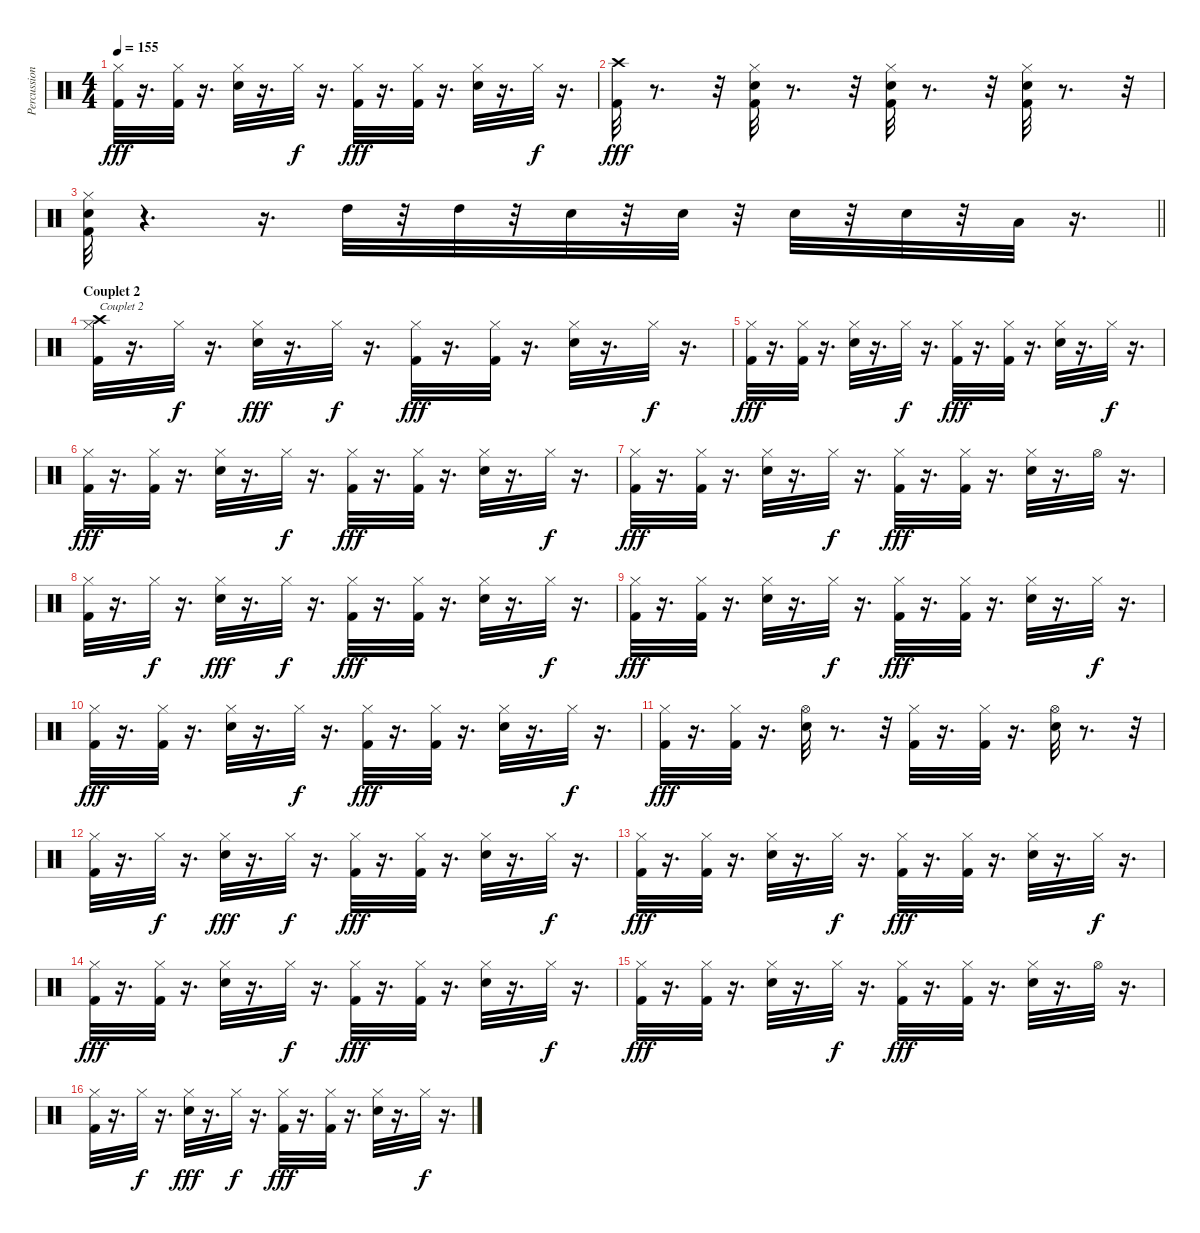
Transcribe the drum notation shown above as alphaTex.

\track ("Percussions" "Percussion") {instrument percussion}
\staff {score}
\articulation defaults
\ts (4 4)
\tempo 155
\clef neutral
\ks c
("Hi-Hat (closed)" "Kick (hit) 2").32{dy fff} r.16{d} ("Kick (hit) 2" "Hi-Hat (closed)").32 r.16{d} ("Hi-Hat (closed)" "Snare (hit) 2").32 r.16{d} "Hi-Hat (closed)".32{dy f} r.16{d} ("Hi-Hat (closed)" "Kick (hit) 2").32{dy fff} r.16{d} ("Hi-Hat (closed)" "Kick (hit) 2").32 r.16{d} ("Hi-Hat (closed)" "Snare (hit) 2").32 r.16{d} "Hi-Hat (closed)".32{dy f} r.16{d} |
("Kick (hit) 2" "Crash high (hit)").32{dy fff} r.8{d} r.32 ("Kick (hit) 2" "Hi-Hat (closed)" "Snare (hit) 2").32 r.8{d} r.32 ("Kick (hit) 2" "Hi-Hat (closed)" "Snare (hit) 2").32 r.8{d} r.32 ("Kick (hit) 2" "Hi-Hat (closed)" "Snare (hit) 2").32 r.8{d} r.32 |
\barLineRight lightlight
("Kick (hit) 2" "Hi-Hat (closed)" "Snare (hit) 2").32 r.4{d} r.16{d} "High Tom (hit)".32 r.32 "High Tom (hit)".32 r.32 "Snare (hit) 2".32 r.32 "Snare (hit) 2".32 r.32 "Snare (hit) 2".32 r.32 "Snare (hit) 2".32 r.32 "Low Tom (hit)".32 r.16{d} |
\section ("" "Couplet 2")
("Crash high (hit)" "Hi-Hat (closed)" "Kick (hit) 2").32{txt "Couplet 2"} r.16{d} "Hi-Hat (closed)".32{dy f} r.16{d} ("Hi-Hat (closed)" "Snare (hit) 2").32{dy fff} r.16{d} "Hi-Hat (closed)".32{dy f} r.16{d} ("Hi-Hat (closed)" "Kick (hit) 2").32{dy fff} r.16{d} ("Hi-Hat (closed)" "Kick (hit) 2").32 r.16{d} ("Hi-Hat (closed)" "Snare (hit) 2").32 r.16{d} "Hi-Hat (closed)".32{dy f} r.16{d} |
("Hi-Hat (closed)" "Kick (hit) 2").32{dy fff} r.16{d} ("Kick (hit) 2" "Hi-Hat (closed)").32 r.16{d} ("Hi-Hat (closed)" "Snare (hit) 2").32 r.16{d} "Hi-Hat (closed)".32{dy f} r.16{d} ("Hi-Hat (closed)" "Kick (hit) 2").32{dy fff} r.16{d} ("Hi-Hat (closed)" "Kick (hit) 2").32 r.16{d} ("Hi-Hat (closed)" "Snare (hit) 2").32 r.16{d} "Hi-Hat (closed)".32{dy f} r.16{d} |
("Hi-Hat (closed)" "Kick (hit) 2").32{dy fff} r.16{d} ("Kick (hit) 2" "Hi-Hat (closed)").32 r.16{d} ("Hi-Hat (closed)" "Snare (hit) 2").32 r.16{d} "Hi-Hat (closed)".32{dy f} r.16{d} ("Hi-Hat (closed)" "Kick (hit) 2").32{dy fff} r.16{d} ("Hi-Hat (closed)" "Kick (hit) 2").32 r.16{d} ("Hi-Hat (closed)" "Snare (hit) 2").32 r.16{d} "Hi-Hat (closed)".32{dy f} r.16{d} |
("Hi-Hat (closed)" "Kick (hit) 2").32{dy fff} r.16{d} ("Kick (hit) 2" "Hi-Hat (closed)").32 r.16{d} ("Hi-Hat (closed)" "Snare (hit) 2").32 r.16{d} "Hi-Hat (closed)".32{dy f} r.16{d} ("Hi-Hat (closed)" "Kick (hit) 2").32{dy fff} r.16{d} ("Hi-Hat (closed)" "Kick (hit) 2").32 r.16{d} ("Hi-Hat (closed)" "Snare (hit) 2").32 r.16{d} "Hi-Hat (open)".32 r.16{d} |
("Hi-Hat (closed)" "Kick (hit) 2").32 r.16{d} "Hi-Hat (closed)".32{dy f} r.16{d} ("Hi-Hat (closed)" "Snare (hit) 2").32{dy fff} r.16{d} "Hi-Hat (closed)".32{dy f} r.16{d} ("Hi-Hat (closed)" "Kick (hit) 2").32{dy fff} r.16{d} ("Hi-Hat (closed)" "Kick (hit) 2").32 r.16{d} ("Hi-Hat (closed)" "Snare (hit) 2").32 r.16{d} "Hi-Hat (closed)".32{dy f} r.16{d} |
("Hi-Hat (closed)" "Kick (hit) 2").32{dy fff} r.16{d} ("Kick (hit) 2" "Hi-Hat (closed)").32 r.16{d} ("Hi-Hat (closed)" "Snare (hit) 2").32 r.16{d} "Hi-Hat (closed)".32{dy f} r.16{d} ("Hi-Hat (closed)" "Kick (hit) 2").32{dy fff} r.16{d} ("Hi-Hat (closed)" "Kick (hit) 2").32 r.16{d} ("Hi-Hat (closed)" "Snare (hit) 2").32 r.16{d} "Hi-Hat (closed)".32{dy f} r.16{d} |
("Hi-Hat (closed)" "Kick (hit) 2").32{dy fff} r.16{d} ("Kick (hit) 2" "Hi-Hat (closed)").32 r.16{d} ("Hi-Hat (closed)" "Snare (hit) 2").32 r.16{d} "Hi-Hat (closed)".32{dy f} r.16{d} ("Hi-Hat (closed)" "Kick (hit) 2").32{dy fff} r.16{d} ("Hi-Hat (closed)" "Kick (hit) 2").32 r.16{d} ("Hi-Hat (closed)" "Snare (hit) 2").32 r.16{d} "Hi-Hat (closed)".32{dy f} r.16{d} |
("Hi-Hat (closed)" "Kick (hit) 2").32{dy fff} r.16{d} ("Kick (hit) 2" "Hi-Hat (closed)").32 r.16{d} ("Hi-Hat (open)" "Snare (hit) 2").32 r.8{d} r.32 ("Hi-Hat (closed)" "Kick (hit) 2").32 r.16{d} ("Hi-Hat (closed)" "Kick (hit) 2").32 r.16{d} ("Hi-Hat (open)" "Snare (hit) 2").32 r.8{d} r.32 |
("Hi-Hat (closed)" "Kick (hit) 2").32 r.16{d} "Hi-Hat (closed)".32{dy f} r.16{d} ("Hi-Hat (closed)" "Snare (hit) 2").32{dy fff} r.16{d} "Hi-Hat (closed)".32{dy f} r.16{d} ("Hi-Hat (closed)" "Kick (hit) 2").32{dy fff} r.16{d} ("Hi-Hat (closed)" "Kick (hit) 2").32 r.16{d} ("Hi-Hat (closed)" "Snare (hit) 2").32 r.16{d} "Hi-Hat (closed)".32{dy f} r.16{d} |
("Hi-Hat (closed)" "Kick (hit) 2").32{dy fff} r.16{d} ("Kick (hit) 2" "Hi-Hat (closed)").32 r.16{d} ("Hi-Hat (closed)" "Snare (hit) 2").32 r.16{d} "Hi-Hat (closed)".32{dy f} r.16{d} ("Hi-Hat (closed)" "Kick (hit) 2").32{dy fff} r.16{d} ("Hi-Hat (closed)" "Kick (hit) 2").32 r.16{d} ("Hi-Hat (closed)" "Snare (hit) 2").32 r.16{d} "Hi-Hat (closed)".32{dy f} r.16{d} |
("Hi-Hat (closed)" "Kick (hit) 2").32{dy fff} r.16{d} ("Kick (hit) 2" "Hi-Hat (closed)").32 r.16{d} ("Hi-Hat (closed)" "Snare (hit) 2").32 r.16{d} "Hi-Hat (closed)".32{dy f} r.16{d} ("Hi-Hat (closed)" "Kick (hit) 2").32{dy fff} r.16{d} ("Hi-Hat (closed)" "Kick (hit) 2").32 r.16{d} ("Hi-Hat (closed)" "Snare (hit) 2").32 r.16{d} "Hi-Hat (closed)".32{dy f} r.16{d} |
("Hi-Hat (closed)" "Kick (hit) 2").32{dy fff} r.16{d} ("Kick (hit) 2" "Hi-Hat (closed)").32 r.16{d} ("Hi-Hat (closed)" "Snare (hit) 2").32 r.16{d} "Hi-Hat (closed)".32{dy f} r.16{d} ("Hi-Hat (closed)" "Kick (hit) 2").32{dy fff} r.16{d} ("Hi-Hat (closed)" "Kick (hit) 2").32 r.16{d} ("Hi-Hat (closed)" "Snare (hit) 2").32 r.16{d} "Hi-Hat (open)".32 r.16{d} |
("Hi-Hat (closed)" "Kick (hit) 2").32 r.16{d} "Hi-Hat (closed)".32{dy f} r.16{d} ("Hi-Hat (closed)" "Snare (hit) 2").32{dy fff} r.16{d} "Hi-Hat (closed)".32{dy f} r.16{d} ("Hi-Hat (closed)" "Kick (hit) 2").32{dy fff} r.16{d} ("Hi-Hat (closed)" "Kick (hit) 2").32 r.16{d} ("Hi-Hat (closed)" "Snare (hit) 2").32 r.16{d} "Hi-Hat (closed)".32{dy f} r.16{d}
